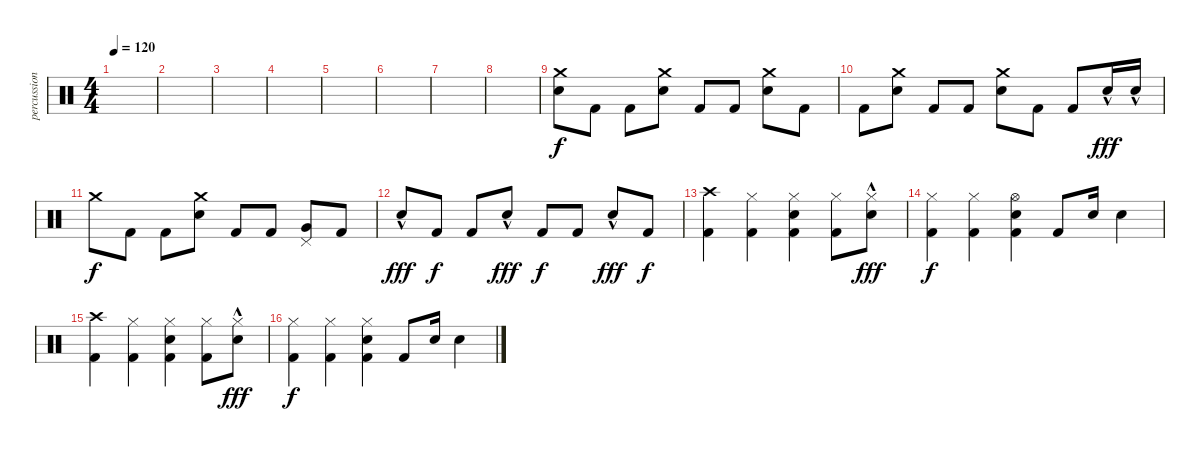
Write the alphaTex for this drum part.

\track ("percussion" "percussion") {instrument percussion}
\staff {score}
\articulation defaults
\ts (4 4)
\tempo 120
\clef neutral
\ks c
|
|
|
|
|
|
|
|
("Crash medium (hit)" "Electric Snare (hit)").8{dy f} "Kick (hit) 2".8 "Kick (hit) 2".8 ("Crash medium (hit)" "Electric Snare (hit)").8 "Kick (hit) 2".8 "Kick (hit) 2".8 ("Crash medium (hit)" "Electric Snare (hit)").8 "Kick (hit) 2".8 |
"Kick (hit) 2".8 ("Crash medium (hit)" "Electric Snare (hit)").8 "Kick (hit) 2".8 "Kick (hit) 2".8 ("Crash medium (hit)" "Electric Snare (hit)").8 "Kick (hit) 2".8 "Kick (hit) 2".8 "Electric Snare (hit)"{hac}.16{dy fff} "Electric Snare (hit)"{hac}.16 |
"Crash medium (hit)".8{dy f} "Kick (hit) 2".8 "Kick (hit) 2".8 ("Crash medium (hit)" "Electric Snare (hit)").8 "Kick (hit) 2".8 "Kick (hit) 2".8 ("Pedal Hi-Hat (hit)" "Very Low Tom (hit)").8 "Kick (hit) 2".8 |
"Electric Snare (hit)"{hac}.8{dy fff} "Kick (hit) 2".8{dy f} "Kick (hit) 2".8 "Electric Snare (hit)"{hac}.8{dy fff} "Kick (hit) 2".8{dy f} "Kick (hit) 2".8 "Electric Snare (hit)"{hac}.8{dy fff} "Kick (hit) 2".8{dy f} |
("Crash high (hit)" "Kick (hit) 2").4 ("Hi-Hat (closed)" "Kick (hit) 2").4 ("Hi-Hat (closed)" "Electric Snare (hit)" "Kick (hit) 2").4 ("Hi-Hat (closed)" "Kick (hit) 2").8 ("Hi-Hat (closed)" "Electric Snare (hit)"{hac}).8{dy fff} |
("Hi-Hat (closed)" "Kick (hit) 2").4{dy f} ("Hi-Hat (closed)" "Kick (hit) 2").4 ("Hi-Hat (open)" "Electric Snare (hit)" "Kick (hit) 2").4 "Kick (hit) 2".8 "Electric Snare (hit)".16 "Electric Snare (hit)".4 |
("Crash high (hit)" "Kick (hit) 2").4 ("Hi-Hat (closed)" "Kick (hit) 2").4 ("Hi-Hat (closed)" "Electric Snare (hit)" "Kick (hit) 2").4 ("Hi-Hat (closed)" "Kick (hit) 2").8 ("Hi-Hat (closed)" "Electric Snare (hit)"{hac}).8{dy fff} |
("Hi-Hat (closed)" "Kick (hit) 2").4{dy f} ("Hi-Hat (closed)" "Kick (hit) 2").4 ("Hi-Hat (closed)" "Electric Snare (hit)" "Kick (hit) 2").4 "Kick (hit) 2".8 "Electric Snare (hit)".16 "Electric Snare (hit)".4
